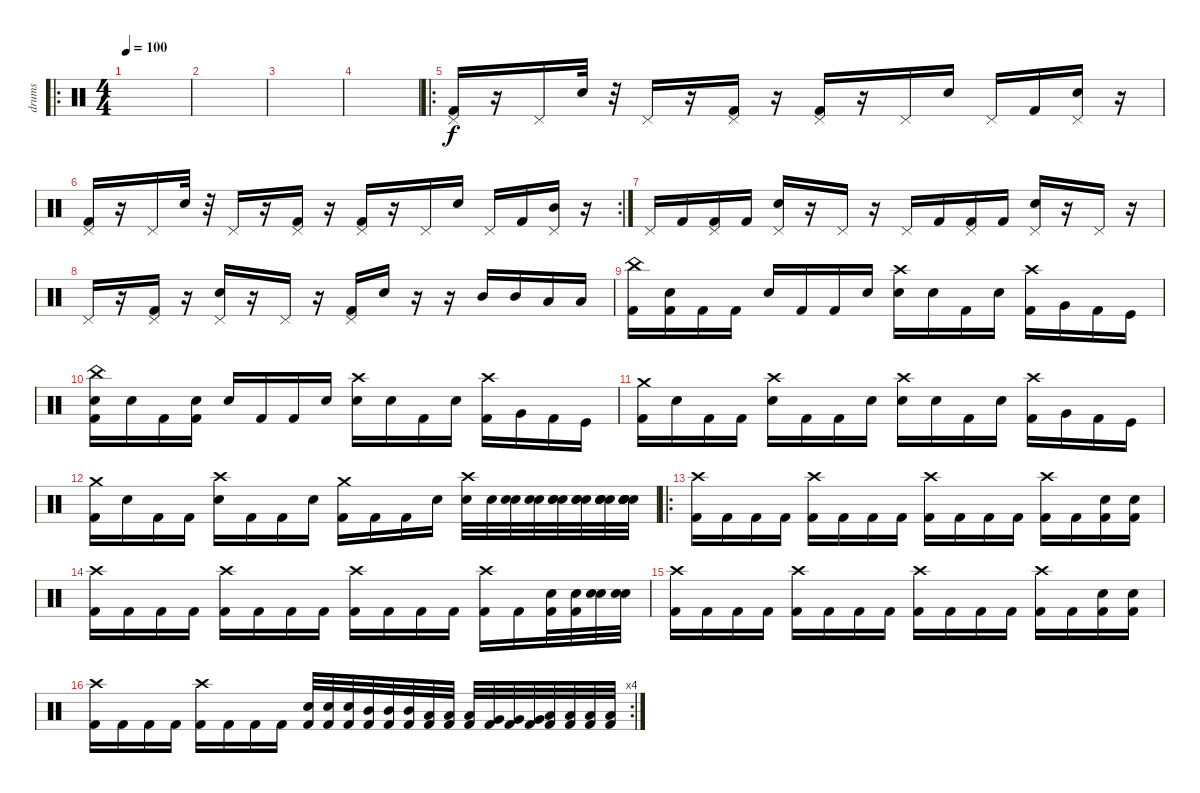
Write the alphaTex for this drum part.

\track ("drums " "drums ") {instrument percussion}
\staff {score}
\articulation defaults
\ro
\ts (4 4)
\tempo 100
\clef neutral
\ks c
|
|
|
|
\ro
("Kick (hit) 2" "Pedal Hi-Hat (hit)").16 r.16 "Pedal Hi-Hat (hit)".16 "Electric Snare (hit)".32 r.32 "Pedal Hi-Hat (hit)".16 r.16 ("Kick (hit) 2" "Pedal Hi-Hat (hit)").16 r.16 ("Kick (hit) 2" "Pedal Hi-Hat (hit)").16 r.16 "Pedal Hi-Hat (hit)".16 "Electric Snare (hit)".16 "Pedal Hi-Hat (hit)".16 "Kick (hit) 2".16 ("Electric Snare (hit)" "Pedal Hi-Hat (hit)").16 r.16 |
\rc 2
("Kick (hit) 2" "Pedal Hi-Hat (hit)").16 r.16 "Pedal Hi-Hat (hit)".16 "Electric Snare (hit)".32 r.32 "Pedal Hi-Hat (hit)".16 r.16 ("Kick (hit) 2" "Pedal Hi-Hat (hit)").16 r.16 ("Kick (hit) 2" "Pedal Hi-Hat (hit)").16 r.16 "Pedal Hi-Hat (hit)".16 "Electric Snare (hit)".16 "Pedal Hi-Hat (hit)".16 "Kick (hit) 2".16 ("Mid Tom (hit)" "Pedal Hi-Hat (hit)").16 r.16 |
"Pedal Hi-Hat (hit)".16 "Kick (hit) 2".16 ("Kick (hit) 2" "Pedal Hi-Hat (hit)").16 "Kick (hit) 2".16 ("Snare (hit) 2" "Pedal Hi-Hat (hit)").16 r.16 "Pedal Hi-Hat (hit)".16 r.16 "Pedal Hi-Hat (hit)".16 "Kick (hit) 2".16 ("Kick (hit) 2" "Pedal Hi-Hat (hit)").16 "Kick (hit) 2".16 ("Snare (hit) 2" "Pedal Hi-Hat (hit)").16 r.16 "Pedal Hi-Hat (hit)".16 r.16 |
"Pedal Hi-Hat (hit)".16 r.16 ("Kick (hit) 2" "Pedal Hi-Hat (hit)").16 r.16 ("Snare (hit) 2" "Pedal Hi-Hat (hit)").16 r.16 "Pedal Hi-Hat (hit)".16 r.16 ("Kick (hit) 2" "Pedal Hi-Hat (hit)").16 "Snare (hit) 2".16 r.16 r.16 "Mid Tom (hit)".16 "Mid Tom (hit)".16 "Low Tom (hit)".16 "Low Tom (hit)".16 |
("China (hit)" "Kick (hit) 2").16 ("Kick (hit) 2" "Snare (hit)").16 "Kick (hit) 2".16 "Kick (hit) 2".16 "Snare (hit)".16 "Kick (hit) 2".16 "Kick (hit) 2".16 "Snare (hit)".16 ("Crash high (hit)" "Snare (hit)").16 "Snare (hit)".16 "Kick (hit) 2".16 "Snare (hit)".16 ("Crash high (hit)" "Kick (hit) 2").16 "Very Low Tom (hit)".16 "Kick (hit) 2".16 "Kick (hit)".16 |
("Snare (hit) 2" "China (hit)" "Kick (hit) 2").16 "Snare (hit)".16 "Kick (hit) 2".16 ("Snare (hit) 2" "Kick (hit) 2").16 "Snare (hit)".16 "Kick (hit) 2".16 "Kick (hit) 2".16 "Snare (hit)".16 ("Crash high (hit)" "Snare (hit)").16 "Snare (hit)".16 "Kick (hit) 2".16 "Snare (hit)".16 ("Crash high (hit)" "Kick (hit) 2").16 "Very Low Tom (hit)".16 "Kick (hit) 2".16 "Kick (hit)".16 |
("Crash medium (hit)" "Kick (hit) 2").16 "Snare (hit)".16 "Kick (hit) 2".16 "Kick (hit) 2".16 ("Crash high (hit)" "Snare (hit)").16 "Kick (hit) 2".16 "Kick (hit) 2".16 "Snare (hit)".16 ("Crash high (hit)" "Snare (hit)").16 "Snare (hit)".16 "Kick (hit) 2".16 "Snare (hit)".16 ("Crash high (hit)" "Kick (hit) 2").16 "Very Low Tom (hit)".16 "Kick (hit) 2".16 "Kick (hit)".16 |
("Crash medium (hit)" "Kick (hit) 2").16 "Snare (hit)".16 "Kick (hit) 2".16 "Kick (hit) 2".16 ("Crash high (hit)" "Snare (hit)").16 "Kick (hit) 2".16 "Kick (hit) 2".16 "Snare (hit)".16 ("Crash medium (hit)" "Kick (hit) 2").16 "Kick (hit) 2".16 "Kick (hit) 2".16 "Electric Snare (hit)".16 ("Crash high (hit)" "Electric Snare (hit)").32 "Electric Snare (hit)".32 ("Electric Snare (hit)" "Electric Snare (hit)").32 ("Electric Snare (hit)" "Electric Snare (hit)").32 ("Electric Snare (hit)" "Electric Snare (hit)" "Electric Snare (hit)").32 ("Electric Snare (hit)" "Electric Snare (hit)" "Electric Snare (hit)").32 ("Electric Snare (hit)" "Electric Snare (hit)" "Electric Snare (hit)" "Electric Snare (hit)").32 ("Electric Snare (hit)" "Electric Snare (hit)" "Electric Snare (hit)" "Electric Snare (hit)" "Electric Snare (hit)").32 |
\ro
("Kick (hit) 2" "Crash high (hit)").16 "Kick (hit) 2".16 "Kick (hit) 2".16 "Kick (hit) 2".16 ("Kick (hit) 2" "Crash high (hit)").16 "Kick (hit) 2".16 "Kick (hit) 2".16 "Kick (hit) 2".16 ("Kick (hit) 2" "Crash high (hit)").16 "Kick (hit) 2".16 "Kick (hit) 2".16 "Kick (hit) 2".16 ("Kick (hit) 2" "Crash high (hit)").16 "Kick (hit) 2".16 ("Kick (hit) 2" "Snare (hit) 2").16 ("Kick (hit) 2" "Snare (hit) 2").16 |
("Kick (hit) 2" "Crash high (hit)").16 "Kick (hit) 2".16 "Kick (hit) 2".16 "Kick (hit) 2".16 ("Kick (hit) 2" "Crash high (hit)").16 "Kick (hit) 2".16 "Kick (hit) 2".16 "Kick (hit) 2".16 ("Kick (hit) 2" "Crash high (hit)").16 "Kick (hit) 2".16 "Kick (hit) 2".16 "Kick (hit) 2".16 ("Kick (hit) 2" "Crash high (hit)").16 "Kick (hit) 2".16 ("Kick (hit) 2" "Snare (hit) 2").32 ("Kick (hit) 2" "Electric Snare (hit)").32 ("Snare (hit) 2" "Snare (hit) 2").32 ("Snare (hit) 2" "Electric Snare (hit)").32 |
("Kick (hit) 2" "Crash high (hit)").16 "Kick (hit) 2".16 "Kick (hit) 2".16 "Kick (hit) 2".16 ("Kick (hit) 2" "Crash high (hit)").16 "Kick (hit) 2".16 "Kick (hit) 2".16 "Kick (hit) 2".16 ("Kick (hit) 2" "Crash high (hit)").16 "Kick (hit) 2".16 "Kick (hit) 2".16 "Kick (hit) 2".16 ("Kick (hit) 2" "Crash high (hit)").16 "Kick (hit) 2".16 ("Kick (hit) 2" "Snare (hit) 2").16 ("Kick (hit) 2" "Snare (hit) 2").16 |
\rc 4
("Kick (hit) 2" "Crash high (hit)").16 "Kick (hit) 2".16 "Kick (hit) 2".16 "Kick (hit) 2".16 ("Kick (hit) 2" "Crash high (hit)").16 "Kick (hit) 2".16 "Kick (hit) 2".16 "Kick (hit) 2".16 ("Kick (hit) 2" "Snare (hit) 2").32 ("Kick (hit) 2" "Snare (hit) 2").32 ("Kick (hit) 2" "Snare (hit) 2").32 ("Kick (hit) 2" "Mid Tom (hit)").32 ("Kick (hit) 2" "Mid Tom (hit)").32 ("Kick (hit) 2" "Mid Tom (hit)").32 ("Kick (hit) 2" "Low Tom (hit)").32 ("Kick (hit) 2" "Low Tom (hit)").32 ("Kick (hit) 2" "Low Tom (hit)").32 ("Kick (hit) 2" "Very Low Tom (hit)").32 ("Kick (hit) 2" "Very Low Tom (hit)").32 ("Kick (hit) 2" "Very Low Tom (hit)").32 ("Kick (hit) 2" "Low Floor Tom (hit)").32 ("Kick (hit) 2" "Low Floor Tom (hit)").32 ("Kick (hit) 2" "Low Floor Tom (hit)").32 ("Kick (hit) 2" "Low Floor Tom (hit)").32
